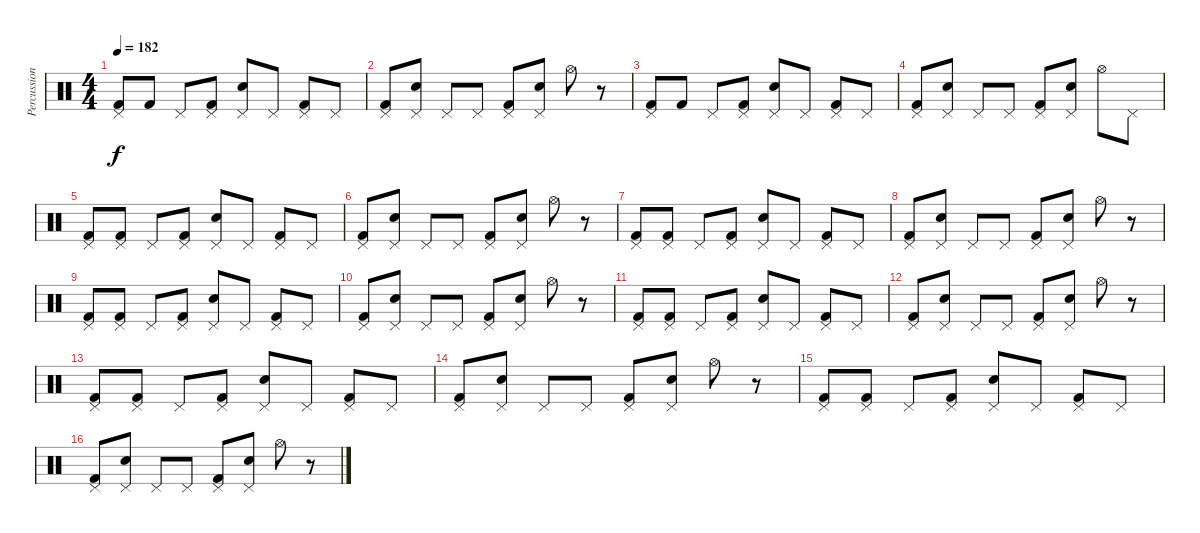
\track ("Percussion" "Percussion") {instrument percussion}
\staff {score}
\articulation defaults
\ts (4 4)
\tempo 182
\clef neutral
\ks c
("Pedal Hi-Hat (hit)" "Kick (hit) 2").8{dy f} "Kick (hit) 2".8 "Pedal Hi-Hat (hit)".8 ("Pedal Hi-Hat (hit)" "Kick (hit) 2").8 ("Pedal Hi-Hat (hit)" "Snare (hit) 2").8 "Pedal Hi-Hat (hit)".8 ("Pedal Hi-Hat (hit)" "Kick (hit) 2").8 "Pedal Hi-Hat (hit)".8 |
("Pedal Hi-Hat (hit)" "Kick (hit) 2").8 ("Pedal Hi-Hat (hit)" "Snare (hit) 2").8 "Pedal Hi-Hat (hit)".8 "Pedal Hi-Hat (hit)".8 ("Pedal Hi-Hat (hit)" "Kick (hit) 2").8 ("Pedal Hi-Hat (hit)" "Snare (hit) 2").8 "Hi-Hat (open)".8 r.8 |
("Pedal Hi-Hat (hit)" "Kick (hit) 2").8 "Kick (hit) 2".8 "Pedal Hi-Hat (hit)".8 ("Pedal Hi-Hat (hit)" "Kick (hit) 2").8 ("Pedal Hi-Hat (hit)" "Snare (hit) 2").8 "Pedal Hi-Hat (hit)".8 ("Pedal Hi-Hat (hit)" "Kick (hit) 2").8 "Pedal Hi-Hat (hit)".8 |
("Pedal Hi-Hat (hit)" "Kick (hit) 2").8 ("Pedal Hi-Hat (hit)" "Snare (hit) 2").8 "Pedal Hi-Hat (hit)".8 "Pedal Hi-Hat (hit)".8 ("Pedal Hi-Hat (hit)" "Kick (hit) 2").8 ("Pedal Hi-Hat (hit)" "Snare (hit) 2").8 "Hi-Hat (open)".8 "Pedal Hi-Hat (hit)".8 |
("Pedal Hi-Hat (hit)" "Kick (hit) 2").8 ("Pedal Hi-Hat (hit)" "Kick (hit) 2").8 "Pedal Hi-Hat (hit)".8 ("Pedal Hi-Hat (hit)" "Kick (hit) 2").8 ("Pedal Hi-Hat (hit)" "Snare (hit) 2").8 "Pedal Hi-Hat (hit)".8 ("Pedal Hi-Hat (hit)" "Kick (hit) 2").8 "Pedal Hi-Hat (hit)".8 |
("Pedal Hi-Hat (hit)" "Kick (hit) 2").8 ("Pedal Hi-Hat (hit)" "Snare (hit) 2").8 "Pedal Hi-Hat (hit)".8 "Pedal Hi-Hat (hit)".8 ("Pedal Hi-Hat (hit)" "Kick (hit) 2").8 ("Pedal Hi-Hat (hit)" "Snare (hit) 2").8 "Hi-Hat (open)".8 r.8 |
("Pedal Hi-Hat (hit)" "Kick (hit) 2").8 ("Pedal Hi-Hat (hit)" "Kick (hit) 2").8 "Pedal Hi-Hat (hit)".8 ("Pedal Hi-Hat (hit)" "Kick (hit) 2").8 ("Pedal Hi-Hat (hit)" "Snare (hit) 2").8 "Pedal Hi-Hat (hit)".8 ("Pedal Hi-Hat (hit)" "Kick (hit) 2").8 "Pedal Hi-Hat (hit)".8 |
("Pedal Hi-Hat (hit)" "Kick (hit) 2").8 ("Pedal Hi-Hat (hit)" "Snare (hit) 2").8 "Pedal Hi-Hat (hit)".8 "Pedal Hi-Hat (hit)".8 ("Pedal Hi-Hat (hit)" "Kick (hit) 2").8 ("Pedal Hi-Hat (hit)" "Snare (hit) 2").8 "Hi-Hat (open)".8 r.8 |
("Pedal Hi-Hat (hit)" "Kick (hit) 2").8 ("Pedal Hi-Hat (hit)" "Kick (hit) 2").8 "Pedal Hi-Hat (hit)".8 ("Pedal Hi-Hat (hit)" "Kick (hit) 2").8 ("Pedal Hi-Hat (hit)" "Snare (hit) 2").8 "Pedal Hi-Hat (hit)".8 ("Pedal Hi-Hat (hit)" "Kick (hit) 2").8 "Pedal Hi-Hat (hit)".8 |
("Pedal Hi-Hat (hit)" "Kick (hit) 2").8 ("Pedal Hi-Hat (hit)" "Snare (hit) 2").8 "Pedal Hi-Hat (hit)".8 "Pedal Hi-Hat (hit)".8 ("Pedal Hi-Hat (hit)" "Kick (hit) 2").8 ("Pedal Hi-Hat (hit)" "Snare (hit) 2").8 "Hi-Hat (open)".8 r.8 |
("Pedal Hi-Hat (hit)" "Kick (hit) 2").8 ("Pedal Hi-Hat (hit)" "Kick (hit) 2").8 "Pedal Hi-Hat (hit)".8 ("Pedal Hi-Hat (hit)" "Kick (hit) 2").8 ("Pedal Hi-Hat (hit)" "Snare (hit) 2").8 "Pedal Hi-Hat (hit)".8 ("Pedal Hi-Hat (hit)" "Kick (hit) 2").8 "Pedal Hi-Hat (hit)".8 |
("Pedal Hi-Hat (hit)" "Kick (hit) 2").8 ("Pedal Hi-Hat (hit)" "Snare (hit) 2").8 "Pedal Hi-Hat (hit)".8 "Pedal Hi-Hat (hit)".8 ("Pedal Hi-Hat (hit)" "Kick (hit) 2").8 ("Pedal Hi-Hat (hit)" "Snare (hit) 2").8 "Hi-Hat (open)".8 r.8 |
("Pedal Hi-Hat (hit)" "Kick (hit) 2").8 ("Pedal Hi-Hat (hit)" "Kick (hit) 2").8 "Pedal Hi-Hat (hit)".8 ("Pedal Hi-Hat (hit)" "Kick (hit) 2").8 ("Pedal Hi-Hat (hit)" "Snare (hit) 2").8 "Pedal Hi-Hat (hit)".8 ("Pedal Hi-Hat (hit)" "Kick (hit) 2").8 "Pedal Hi-Hat (hit)".8 |
("Pedal Hi-Hat (hit)" "Kick (hit) 2").8 ("Pedal Hi-Hat (hit)" "Snare (hit) 2").8 "Pedal Hi-Hat (hit)".8 "Pedal Hi-Hat (hit)".8 ("Pedal Hi-Hat (hit)" "Kick (hit) 2").8 ("Pedal Hi-Hat (hit)" "Snare (hit) 2").8 "Hi-Hat (open)".8 r.8 |
("Pedal Hi-Hat (hit)" "Kick (hit) 2").8 ("Pedal Hi-Hat (hit)" "Kick (hit) 2").8 "Pedal Hi-Hat (hit)".8 ("Pedal Hi-Hat (hit)" "Kick (hit) 2").8 ("Pedal Hi-Hat (hit)" "Snare (hit) 2").8 "Pedal Hi-Hat (hit)".8 ("Pedal Hi-Hat (hit)" "Kick (hit) 2").8 "Pedal Hi-Hat (hit)".8 |
("Pedal Hi-Hat (hit)" "Kick (hit) 2").8 ("Pedal Hi-Hat (hit)" "Snare (hit) 2").8 "Pedal Hi-Hat (hit)".8 "Pedal Hi-Hat (hit)".8 ("Pedal Hi-Hat (hit)" "Kick (hit) 2").8 ("Pedal Hi-Hat (hit)" "Snare (hit) 2").8 "Hi-Hat (open)".8 r.8
